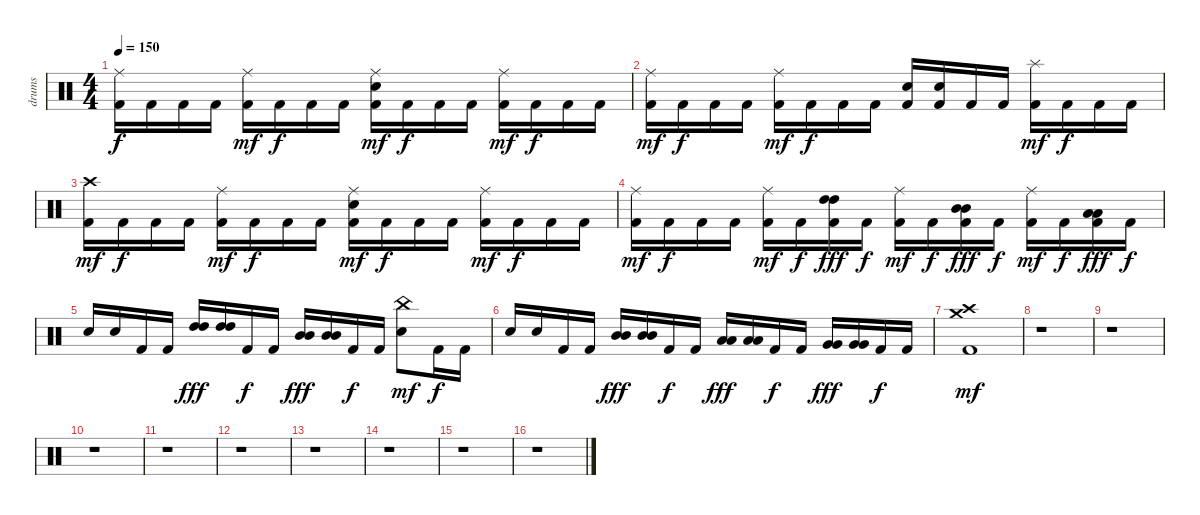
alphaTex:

\track ("drums" "drums") {instrument percussion}
\staff {score}
\articulation defaults
\ts (4 4)
\tempo 150
\clef neutral
\ks c
("Ride (middle)" "Kick (hit) 2").16{dy f} "Kick (hit) 2".16 "Kick (hit) 2".16 "Kick (hit) 2".16 ("Ride (middle)" "Kick (hit) 2").16{dy mf} "Kick (hit) 2".16{dy f} "Kick (hit) 2".16 "Kick (hit) 2".16 ("Ride (middle)" "Snare (hit) 2" "Kick (hit) 2").16{dy mf} "Kick (hit) 2".16{dy f} "Kick (hit) 2".16 "Kick (hit) 2".16 ("Ride (middle)" "Kick (hit) 2").16{dy mf} "Kick (hit) 2".16{dy f} "Kick (hit) 2".16 "Kick (hit) 2".16 |
("Ride (middle)" "Kick (hit) 2").16{dy mf} "Kick (hit) 2".16{dy f} "Kick (hit) 2".16 "Kick (hit) 2".16 ("Ride (middle)" "Kick (hit) 2").16{dy mf} "Kick (hit) 2".16{dy f} "Kick (hit) 2".16 "Kick (hit) 2".16 ("Snare (hit) 2" "Kick (hit) 2").16 ("Snare (hit) 2" "Kick (hit) 2").16 "Kick (hit) 2".16 "Kick (hit) 2".16 ("Splash (hit)" "Kick (hit) 2").16{dy mf} "Kick (hit) 2".16{dy f} "Kick (hit) 2".16 "Kick (hit) 2".16 |
("Crash high (hit)" "Kick (hit) 2").16{dy mf} "Kick (hit) 2".16{dy f} "Kick (hit) 2".16 "Kick (hit) 2".16 ("Ride (middle)" "Kick (hit) 2").16{dy mf} "Kick (hit) 2".16{dy f} "Kick (hit) 2".16 "Kick (hit) 2".16 ("Ride (middle)" "Snare (hit) 2" "Kick (hit) 2").16{dy mf} "Kick (hit) 2".16{dy f} "Kick (hit) 2".16 "Kick (hit) 2".16 ("Ride (middle)" "Kick (hit) 2").16{dy mf} "Kick (hit) 2".16{dy f} "Kick (hit) 2".16 "Kick (hit) 2".16 |
("Ride (middle)" "Kick (hit) 2").16{dy mf} "Kick (hit) 2".16{dy f} "Kick (hit) 2".16 "Kick (hit) 2".16 ("Ride (middle)" "Kick (hit) 2").16{dy mf} "Kick (hit) 2".16{dy f} ("High Tom (hit)" "High Tom (hit)" "Kick (hit) 2").16{dy fff} "Kick (hit) 2".16{dy f} ("Ride (middle)" "Kick (hit) 2").16{dy mf} "Kick (hit) 2".16{dy f} ("Mid Tom (hit)" "Mid Tom (hit)" "Kick (hit) 2").16{dy fff} "Kick (hit) 2".16{dy f} ("Ride (middle)" "Kick (hit) 2").16{dy mf} "Kick (hit) 2".16{dy f} ("Low Tom (hit)" "Low Tom (hit)" "Kick (hit) 2").16{dy fff} "Kick (hit) 2".16{dy f} |
"Snare (hit) 2".16 "Snare (hit) 2".16 "Kick (hit) 2".16 "Kick (hit) 2".16 ("High Tom (hit)" "High Tom (hit)").16{dy fff} ("High Tom (hit)" "High Tom (hit)").16 "Kick (hit) 2".16{dy f} "Kick (hit) 2".16 ("Mid Tom (hit)" "Mid Tom (hit)").16{dy fff} ("Mid Tom (hit)" "Mid Tom (hit)").16 "Kick (hit) 2".16{dy f} "Kick (hit) 2".16 ("China (hit)" "Snare (hit) 2").8{dy mf} "Kick (hit) 2".16{dy f} "Kick (hit) 2".16 |
"Snare (hit) 2".16 "Snare (hit) 2".16 "Kick (hit) 2".16 "Kick (hit) 2".16 ("Mid Tom (hit)" "Mid Tom (hit)").16{dy fff} ("Mid Tom (hit)" "Mid Tom (hit)").16 "Kick (hit) 2".16{dy f} "Kick (hit) 2".16 ("Low Tom (hit)" "Low Tom (hit)").16{dy fff} ("Low Tom (hit)" "Low Tom (hit)").16 "Kick (hit) 2".16{dy f} "Kick (hit) 2".16 ("Very Low Tom (hit)" "Very Low Tom (hit)").16{dy fff} ("Very Low Tom (hit)" "Very Low Tom (hit)").16 "Kick (hit) 2".16{dy f} "Kick (hit) 2".16 |
("Crash medium (hit)" "Crash high (hit)" "Kick (hit) 2").1{dy mf} |
r.1 |
r.1 |
r.1 |
r.1 |
r.1 |
r.1 |
r.1 |
r.1 |
r.1
